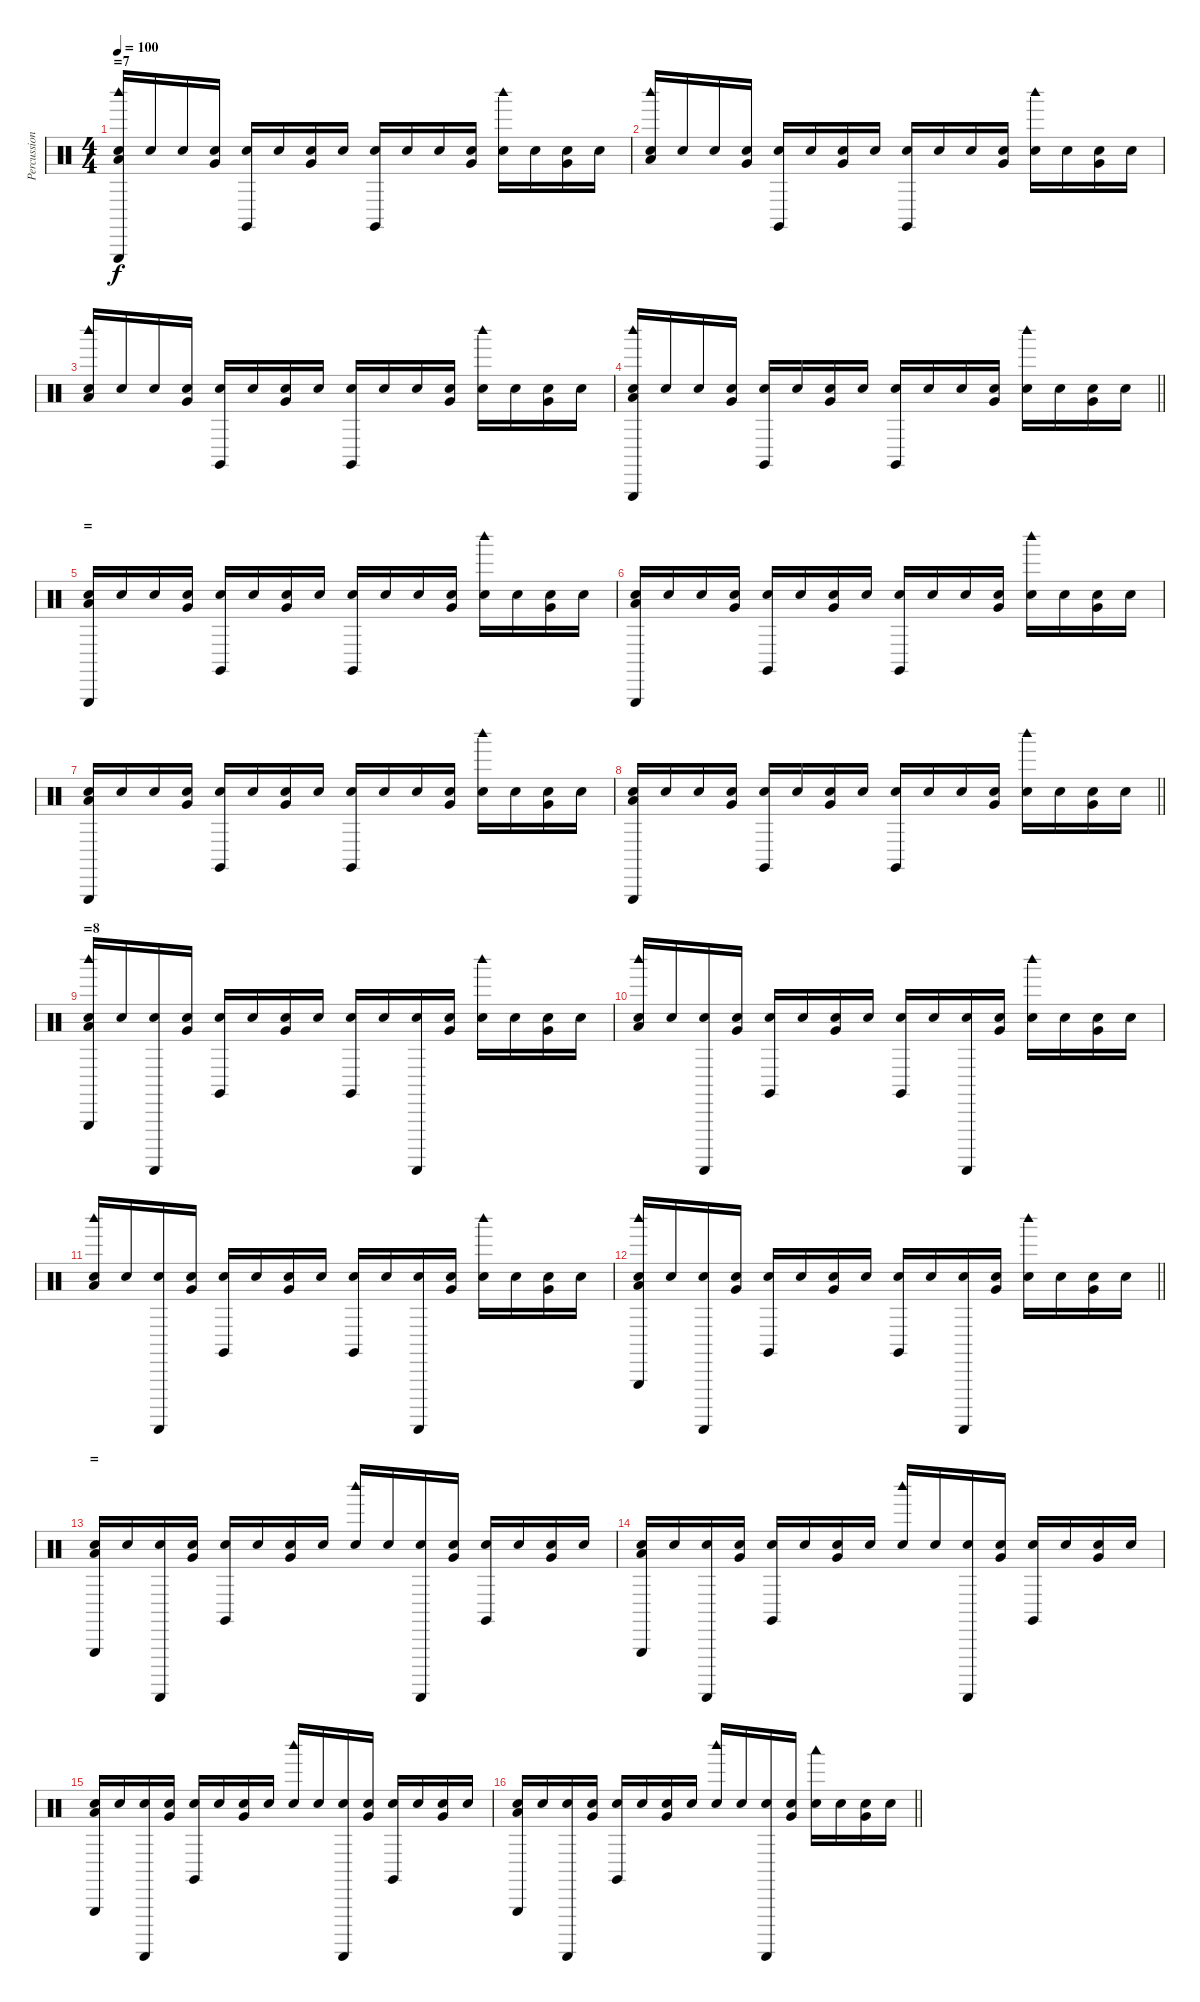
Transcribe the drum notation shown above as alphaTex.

\track ("Percussion" "Percussion") {instrument percussion}
\staff {score}
\articulation defaults
\ts (4 4)
\section ("" "=7")
\tempo 100
\clef neutral
\ks c
("Low Floor Tom (hit)" "Woodblock high (hit)" "Metronome (bell)" "Triangle (hit)").16{dy f} "Metronome (bell)".16 "Metronome (bell)".16 ("Very Low Tom (hit)" "Metronome (bell)").16 ("Claves (hit)" "Metronome (bell)").16 "Metronome (bell)".16 ("Very Low Tom (hit)" "Metronome (bell)").16 "Metronome (bell)".16 ("Claves (hit)" "Metronome (bell)").16 "Metronome (bell)".16 "Metronome (bell)".16 ("Very Low Tom (hit)" "Metronome (bell)").16 ("Woodblock high (hit)" "Metronome (bell)").16 "Metronome (bell)".16 ("Very Low Tom (hit)" "Metronome (bell)").16 "Metronome (bell)".16 |
("Low Floor Tom (hit)" "Woodblock high (hit)" "Metronome (bell)").16 "Metronome (bell)".16 "Metronome (bell)".16 ("Very Low Tom (hit)" "Metronome (bell)").16 ("Claves (hit)" "Metronome (bell)").16 "Metronome (bell)".16 ("Very Low Tom (hit)" "Metronome (bell)").16 "Metronome (bell)".16 ("Claves (hit)" "Metronome (bell)").16 "Metronome (bell)".16 "Metronome (bell)".16 ("Very Low Tom (hit)" "Metronome (bell)").16 ("Woodblock high (hit)" "Metronome (bell)").16 "Metronome (bell)".16 ("Very Low Tom (hit)" "Metronome (bell)").16 "Metronome (bell)".16 |
("Low Floor Tom (hit)" "Woodblock high (hit)" "Metronome (bell)").16 "Metronome (bell)".16 "Metronome (bell)".16 ("Very Low Tom (hit)" "Metronome (bell)").16 ("Claves (hit)" "Metronome (bell)").16 "Metronome (bell)".16 ("Very Low Tom (hit)" "Metronome (bell)").16 "Metronome (bell)".16 ("Claves (hit)" "Metronome (bell)").16 "Metronome (bell)".16 "Metronome (bell)".16 ("Very Low Tom (hit)" "Metronome (bell)").16 ("Woodblock high (hit)" "Metronome (bell)").16 "Metronome (bell)".16 ("Very Low Tom (hit)" "Metronome (bell)").16 "Metronome (bell)".16 |
\barLineRight lightlight
("Low Floor Tom (hit)" "Woodblock high (hit)" "Metronome (bell)" "Triangle (hit)").16 "Metronome (bell)".16 "Metronome (bell)".16 ("Very Low Tom (hit)" "Metronome (bell)").16 ("Claves (hit)" "Metronome (bell)").16 "Metronome (bell)".16 ("Very Low Tom (hit)" "Metronome (bell)").16 "Metronome (bell)".16 ("Claves (hit)" "Metronome (bell)").16 "Metronome (bell)".16 "Metronome (bell)".16 ("Very Low Tom (hit)" "Metronome (bell)").16 ("Woodblock high (hit)" "Metronome (bell)").16 "Metronome (bell)".16 ("Very Low Tom (hit)" "Metronome (bell)").16 "Metronome (bell)".16 |
\section ("" "=")
("Low Floor Tom (hit)" "Triangle (hit)" "Metronome (bell)").16 "Metronome (bell)".16 "Metronome (bell)".16 ("Very Low Tom (hit)" "Metronome (bell)").16 ("Claves (hit)" "Metronome (bell)").16 "Metronome (bell)".16 ("Very Low Tom (hit)" "Metronome (bell)").16 "Metronome (bell)".16 ("Claves (hit)" "Metronome (bell)").16 "Metronome (bell)".16 "Metronome (bell)".16 ("Very Low Tom (hit)" "Metronome (bell)").16 ("Woodblock high (hit)" "Metronome (bell)").16 "Metronome (bell)".16 ("Very Low Tom (hit)" "Metronome (bell)").16 "Metronome (bell)".16 |
("Low Floor Tom (hit)" "Triangle (hit)" "Metronome (bell)").16 "Metronome (bell)".16 "Metronome (bell)".16 ("Very Low Tom (hit)" "Metronome (bell)").16 ("Claves (hit)" "Metronome (bell)").16 "Metronome (bell)".16 ("Very Low Tom (hit)" "Metronome (bell)").16 "Metronome (bell)".16 ("Claves (hit)" "Metronome (bell)").16 "Metronome (bell)".16 "Metronome (bell)".16 ("Very Low Tom (hit)" "Metronome (bell)").16 ("Woodblock high (hit)" "Metronome (bell)").16 "Metronome (bell)".16 ("Very Low Tom (hit)" "Metronome (bell)").16 "Metronome (bell)".16 |
("Low Floor Tom (hit)" "Triangle (hit)" "Metronome (bell)").16 "Metronome (bell)".16 "Metronome (bell)".16 ("Very Low Tom (hit)" "Metronome (bell)").16 ("Claves (hit)" "Metronome (bell)").16 "Metronome (bell)".16 ("Very Low Tom (hit)" "Metronome (bell)").16 "Metronome (bell)".16 ("Claves (hit)" "Metronome (bell)").16 "Metronome (bell)".16 "Metronome (bell)".16 ("Very Low Tom (hit)" "Metronome (bell)").16 ("Woodblock high (hit)" "Metronome (bell)").16 "Metronome (bell)".16 ("Very Low Tom (hit)" "Metronome (bell)").16 "Metronome (bell)".16 |
\barLineRight lightlight
("Low Floor Tom (hit)" "Triangle (hit)" "Metronome (bell)").16 "Metronome (bell)".16 "Metronome (bell)".16 ("Very Low Tom (hit)" "Metronome (bell)").16 ("Claves (hit)" "Metronome (bell)").16 "Metronome (bell)".16 ("Very Low Tom (hit)" "Metronome (bell)").16 "Metronome (bell)".16 ("Claves (hit)" "Metronome (bell)").16 "Metronome (bell)".16 "Metronome (bell)".16 ("Very Low Tom (hit)" "Metronome (bell)").16 ("Woodblock high (hit)" "Metronome (bell)").16 "Metronome (bell)".16 ("Very Low Tom (hit)" "Metronome (bell)").16 "Metronome (bell)".16 |
\section ("" "=8")
("Low Floor Tom (hit)" "Woodblock high (hit)" "Metronome (bell)" "Triangle (hit)").16 "Metronome (bell)".16 ("Metronome (bell)" "Guiro (scrap-return)").16 ("Very Low Tom (hit)" "Metronome (bell)").16 ("Claves (hit)" "Metronome (bell)").16 "Metronome (bell)".16 ("Very Low Tom (hit)" "Metronome (bell)").16 "Metronome (bell)".16 ("Claves (hit)" "Metronome (bell)").16 "Metronome (bell)".16 ("Metronome (bell)" "Guiro (scrap-return)").16 ("Very Low Tom (hit)" "Metronome (bell)").16 ("Woodblock high (hit)" "Metronome (bell)").16 "Metronome (bell)".16 ("Very Low Tom (hit)" "Metronome (bell)").16 "Metronome (bell)".16 |
("Low Floor Tom (hit)" "Woodblock high (hit)" "Metronome (bell)").16 "Metronome (bell)".16 ("Metronome (bell)" "Guiro (scrap-return)").16 ("Very Low Tom (hit)" "Metronome (bell)").16 ("Claves (hit)" "Metronome (bell)").16 "Metronome (bell)".16 ("Very Low Tom (hit)" "Metronome (bell)").16 "Metronome (bell)".16 ("Claves (hit)" "Metronome (bell)").16 "Metronome (bell)".16 ("Metronome (bell)" "Guiro (scrap-return)").16 ("Very Low Tom (hit)" "Metronome (bell)").16 ("Woodblock high (hit)" "Metronome (bell)").16 "Metronome (bell)".16 ("Very Low Tom (hit)" "Metronome (bell)").16 "Metronome (bell)".16 |
("Low Floor Tom (hit)" "Woodblock high (hit)" "Metronome (bell)").16 "Metronome (bell)".16 ("Metronome (bell)" "Guiro (scrap-return)").16 ("Very Low Tom (hit)" "Metronome (bell)").16 ("Claves (hit)" "Metronome (bell)").16 "Metronome (bell)".16 ("Very Low Tom (hit)" "Metronome (bell)").16 "Metronome (bell)".16 ("Claves (hit)" "Metronome (bell)").16 "Metronome (bell)".16 ("Metronome (bell)" "Guiro (scrap-return)").16 ("Very Low Tom (hit)" "Metronome (bell)").16 ("Woodblock high (hit)" "Metronome (bell)").16 "Metronome (bell)".16 ("Very Low Tom (hit)" "Metronome (bell)").16 "Metronome (bell)".16 |
\barLineRight lightlight
("Low Floor Tom (hit)" "Woodblock high (hit)" "Metronome (bell)" "Triangle (hit)").16 "Metronome (bell)".16 ("Metronome (bell)" "Guiro (scrap-return)").16 ("Very Low Tom (hit)" "Metronome (bell)").16 ("Claves (hit)" "Metronome (bell)").16 "Metronome (bell)".16 ("Very Low Tom (hit)" "Metronome (bell)").16 "Metronome (bell)".16 ("Claves (hit)" "Metronome (bell)").16 "Metronome (bell)".16 ("Metronome (bell)" "Guiro (scrap-return)").16 ("Very Low Tom (hit)" "Metronome (bell)").16 ("Woodblock high (hit)" "Metronome (bell)").16 "Metronome (bell)".16 ("Very Low Tom (hit)" "Metronome (bell)").16 "Metronome (bell)".16 |
\section ("" "=")
("Low Floor Tom (hit)" "Triangle (hit)" "Metronome (bell)").16 "Metronome (bell)".16 ("Metronome (bell)" "Guiro (scrap-return)").16 ("Very Low Tom (hit)" "Metronome (bell)").16 ("Claves (hit)" "Metronome (bell)").16 "Metronome (bell)".16 ("Very Low Tom (hit)" "Metronome (bell)").16 "Metronome (bell)".16 ("Woodblock high (hit)" "Metronome (bell)").16 "Metronome (bell)".16 ("Metronome (bell)" "Guiro (scrap-return)").16 ("Very Low Tom (hit)" "Metronome (bell)").16 ("Claves (hit)" "Metronome (bell)").16 "Metronome (bell)".16 ("Very Low Tom (hit)" "Metronome (bell)").16 "Metronome (bell)".16 |
("Low Floor Tom (hit)" "Triangle (hit)" "Metronome (bell)").16 "Metronome (bell)".16 ("Metronome (bell)" "Guiro (scrap-return)").16 ("Very Low Tom (hit)" "Metronome (bell)").16 ("Claves (hit)" "Metronome (bell)").16 "Metronome (bell)".16 ("Very Low Tom (hit)" "Metronome (bell)").16 "Metronome (bell)".16 ("Woodblock high (hit)" "Metronome (bell)").16 "Metronome (bell)".16 ("Metronome (bell)" "Guiro (scrap-return)").16 ("Very Low Tom (hit)" "Metronome (bell)").16 ("Claves (hit)" "Metronome (bell)").16 "Metronome (bell)".16 ("Very Low Tom (hit)" "Metronome (bell)").16 "Metronome (bell)".16 |
("Low Floor Tom (hit)" "Triangle (hit)" "Metronome (bell)").16 "Metronome (bell)".16 ("Metronome (bell)" "Guiro (scrap-return)").16 ("Very Low Tom (hit)" "Metronome (bell)").16 ("Claves (hit)" "Metronome (bell)").16 "Metronome (bell)".16 ("Very Low Tom (hit)" "Metronome (bell)").16 "Metronome (bell)".16 ("Woodblock high (hit)" "Metronome (bell)").16 "Metronome (bell)".16 ("Metronome (bell)" "Guiro (scrap-return)").16 ("Very Low Tom (hit)" "Metronome (bell)").16 ("Claves (hit)" "Metronome (bell)").16 "Metronome (bell)".16 ("Very Low Tom (hit)" "Metronome (bell)").16 "Metronome (bell)".16 |
\barLineRight lightlight
("Low Floor Tom (hit)" "Triangle (hit)" "Metronome (bell)").16 "Metronome (bell)".16 ("Metronome (bell)" "Guiro (scrap-return)").16 ("Very Low Tom (hit)" "Metronome (bell)").16 ("Claves (hit)" "Metronome (bell)").16 "Metronome (bell)".16 ("Very Low Tom (hit)" "Metronome (bell)").16 "Metronome (bell)".16 ("Woodblock high (hit)" "Metronome (bell)").16 "Metronome (bell)".16 ("Metronome (bell)" "Guiro (scrap-return)").16 ("Very Low Tom (hit)" "Metronome (bell)").16 ("Woodblock low (hit)" "Metronome (bell)").16 "Metronome (bell)".16 ("Very Low Tom (hit)" "Metronome (bell)").16 "Metronome (bell)".16
